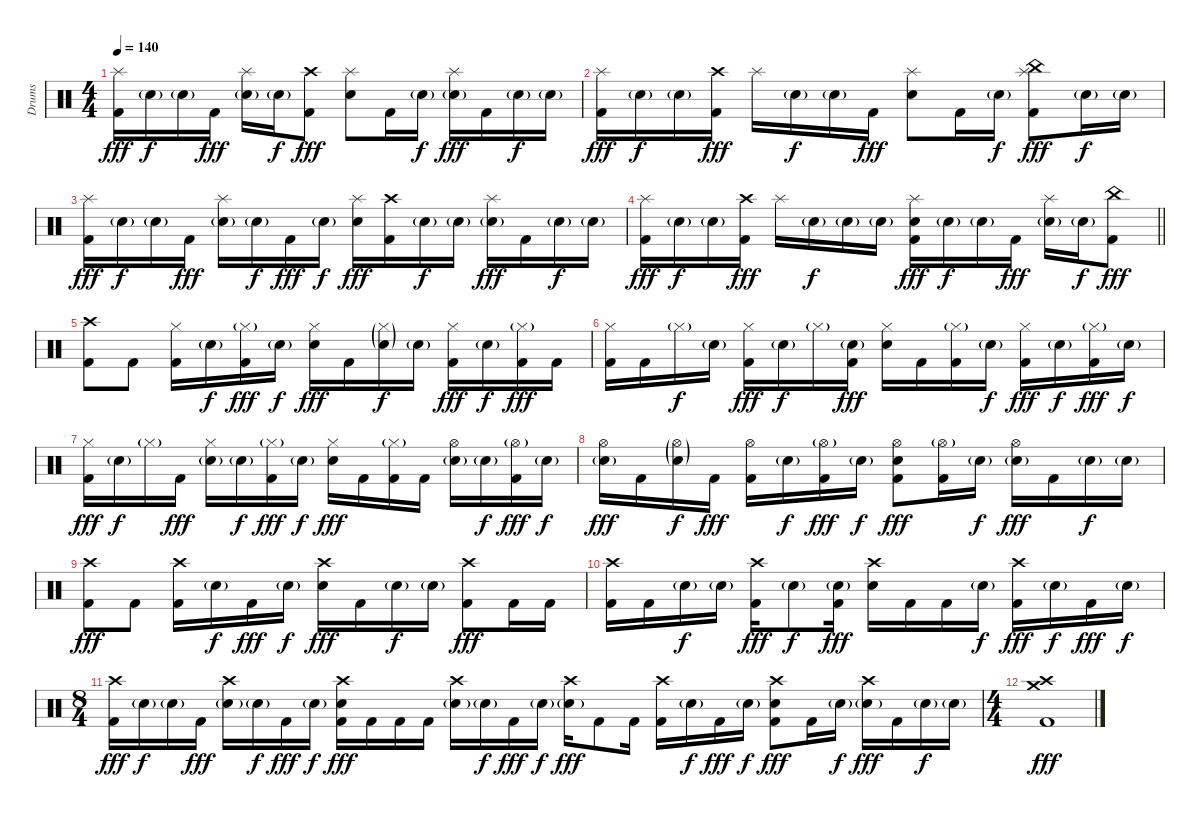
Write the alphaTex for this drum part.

\track ("Drums" "Drums") {instrument percussion}
\staff {score}
\articulation defaults
\ts (4 4)
\tempo 140
\clef neutral
\ks c
("Splash (hit)" "Kick (hit) 2").16{dy fff} "Electric Snare (hit)"{g}.16{dy f} "Electric Snare (hit)"{g}.16 "Kick (hit) 2".16{dy fff} ("Splash (hit)" "Electric Snare (hit)"{g}).16 "Electric Snare (hit)"{g}.16{dy f} ("Crash high (hit)" "Kick (hit) 2").8{dy fff} ("Splash (hit)" "Electric Snare (hit)").8 "Kick (hit) 2".16 "Electric Snare (hit)"{g}.16{dy f} ("Splash (hit)" "Electric Snare (hit)"{g}).16{dy fff} "Kick (hit) 2".16 "Electric Snare (hit)"{g}.16{dy f} "Electric Snare (hit)"{g}.16 |
("Splash (hit)" "Kick (hit) 2").16{dy fff} "Electric Snare (hit)"{g}.16{dy f} "Electric Snare (hit)"{g}.16 ("Crash high (hit)" "Kick (hit) 2").16{dy fff} "Splash (hit)".16 "Electric Snare (hit)"{g}.16{dy f} "Electric Snare (hit)"{g}.16 "Kick (hit) 2".16{dy fff} ("Splash (hit)" "Electric Snare (hit)").8 "Kick (hit) 2".16 "Electric Snare (hit)"{g}.16{dy f} ("Splash (hit)" "China (hit)" "Kick (hit) 2").8{dy fff} "Electric Snare (hit)"{g}.16{dy f} "Electric Snare (hit)"{g}.16 |
("Splash (hit)" "Kick (hit) 2").16{dy fff} "Electric Snare (hit)"{g}.16{dy f} "Electric Snare (hit)"{g}.16 "Kick (hit) 2".16{dy fff} ("Splash (hit)" "Electric Snare (hit)"{g}).16 "Electric Snare (hit)"{g}.16{dy f} "Kick (hit) 2".16{dy fff} "Electric Snare (hit)"{g}.16{dy f} ("Splash (hit)" "Electric Snare (hit)").16{dy fff} ("Crash high (hit)" "Kick (hit) 2").16 "Electric Snare (hit)"{g}.16{dy f} "Electric Snare (hit)"{g}.16 ("Splash (hit)" "Electric Snare (hit)"{g}).16{dy fff} "Kick (hit) 2".16 "Electric Snare (hit)"{g}.16{dy f} "Electric Snare (hit)"{g}.16 |
\barLineRight lightlight
("Splash (hit)" "Kick (hit) 2").16{dy fff} "Electric Snare (hit)"{g}.16{dy f} "Electric Snare (hit)"{g}.16 ("Crash high (hit)" "Kick (hit) 2").16{dy fff} "Splash (hit)".16 "Electric Snare (hit)"{g}.16{dy f} "Electric Snare (hit)"{g}.16 "Electric Snare (hit)"{g}.16 ("Splash (hit)" "Electric Snare (hit)" "Kick (hit) 2").16{dy fff} "Electric Snare (hit)"{g}.16{dy f} "Electric Snare (hit)"{g}.16 "Kick (hit) 2".16{dy fff} ("Splash (hit)" "Electric Snare (hit)"{g}).16 "Electric Snare (hit)"{g}.16{dy f} ("China (hit)" "Kick (hit) 2").8{dy fff} |
\section ("" ".")
("Crash high (hit)" "Kick (hit) 2").8 "Kick (hit) 2".8 ("Hi-Hat (closed)" "Kick (hit) 2").16 "Electric Snare (hit)"{g}.16{dy f} ("Hi-Hat (closed)"{g} "Kick (hit) 2").16{dy fff} "Electric Snare (hit)"{g}.16{dy f} ("Hi-Hat (closed)" "Electric Snare (hit)").16{dy fff} "Kick (hit) 2".16 ("Hi-Hat (closed)"{g} "Electric Snare (hit)"{g}).16{dy f} "Electric Snare (hit)"{g}.16 ("Hi-Hat (closed)" "Kick (hit) 2").16{dy fff} "Electric Snare (hit)"{g}.16{dy f} ("Hi-Hat (closed)"{g} "Kick (hit) 2").16{dy fff} "Kick (hit) 2".16 |
("Hi-Hat (closed)" "Kick (hit) 2").16 "Kick (hit) 2".16 "Hi-Hat (closed)"{g}.16{dy f} "Electric Snare (hit)"{g}.16 ("Hi-Hat (closed)" "Kick (hit) 2").16{dy fff} "Electric Snare (hit)"{g}.16{dy f} "Hi-Hat (closed)"{g}.16 ("Electric Snare (hit)"{g} "Kick (hit) 2").16{dy fff} ("Hi-Hat (closed)" "Electric Snare (hit)").16 "Kick (hit) 2".16 ("Hi-Hat (closed)"{g} "Kick (hit) 2").16 "Electric Snare (hit)"{g}.16{dy f} ("Hi-Hat (closed)" "Kick (hit) 2").16{dy fff} "Electric Snare (hit)"{g}.16{dy f} ("Hi-Hat (closed)"{g} "Kick (hit) 2").16{dy fff} "Electric Snare (hit)"{g}.16{dy f} |
("Hi-Hat (closed)" "Kick (hit) 2").16{dy fff} "Electric Snare (hit)"{g}.16{dy f} "Hi-Hat (closed)"{g}.16 "Kick (hit) 2".16{dy fff} ("Hi-Hat (closed)" "Electric Snare (hit)"{g}).16 "Electric Snare (hit)"{g}.16{dy f} ("Hi-Hat (closed)"{g} "Kick (hit) 2").16{dy fff} "Electric Snare (hit)"{g}.16{dy f} ("Hi-Hat (closed)" "Electric Snare (hit)").16{dy fff} "Kick (hit) 2".16 ("Hi-Hat (closed)"{g} "Kick (hit) 2").16 "Kick (hit) 2".16 ("Hi-Hat (open)" "Electric Snare (hit)"{g}).16 "Electric Snare (hit)"{g}.16{dy f} ("Hi-Hat (open)"{g} "Kick (hit) 2").16{dy fff} "Electric Snare (hit)"{g}.16{dy f} |
("Hi-Hat (open)" "Electric Snare (hit)"{g}).16{dy fff} "Kick (hit) 2".16 ("Hi-Hat (open)"{g} "Electric Snare (hit)"{g}).16{dy f} "Kick (hit) 2".16{dy fff} ("Hi-Hat (open)" "Kick (hit) 2").16 "Electric Snare (hit)"{g}.16{dy f} ("Hi-Hat (open)"{g} "Kick (hit) 2").16{dy fff} "Electric Snare (hit)"{g}.16{dy f} ("Hi-Hat (open)" "Electric Snare (hit)" "Kick (hit) 2").8{dy fff} ("Hi-Hat (open)"{g} "Kick (hit) 2").16 "Electric Snare (hit)"{g}.16{dy f} ("Hi-Hat (open)" "Electric Snare (hit)"{g}).16{dy fff} "Kick (hit) 2".16 "Electric Snare (hit)"{g}.16{dy f} "Electric Snare (hit)"{g}.16 |
("Crash high (hit)" "Kick (hit) 2").8{dy fff} "Kick (hit) 2".8 ("Crash high (hit)" "Kick (hit) 2").16 "Electric Snare (hit)"{g}.16{dy f} "Kick (hit) 2".16{dy fff} "Electric Snare (hit)"{g}.16{dy f} ("Crash high (hit)" "Electric Snare (hit)").16{dy fff} "Kick (hit) 2".16 "Electric Snare (hit)"{g}.16{dy f} "Electric Snare (hit)"{g}.16 ("Crash high (hit)" "Kick (hit) 2").8{dy fff} "Kick (hit) 2".16 "Kick (hit) 2".16 |
("Crash high (hit)" "Kick (hit) 2").16 "Kick (hit) 2".16 "Electric Snare (hit)"{g}.16{dy f} "Electric Snare (hit)"{g}.16 ("Crash high (hit)" "Kick (hit) 2").16{dy fff} "Electric Snare (hit)"{g}.8{dy f} ("Electric Snare (hit)"{g} "Kick (hit) 2").16{dy fff} ("Crash high (hit)" "Electric Snare (hit)").16 "Kick (hit) 2".16 "Kick (hit) 2".16 "Electric Snare (hit)"{g}.16{dy f} ("Crash high (hit)" "Kick (hit) 2").16{dy fff} "Electric Snare (hit)"{g}.16{dy f} "Kick (hit) 2".16{dy fff} "Electric Snare (hit)"{g}.16{dy f} |
\ts (8 4)
("Crash high (hit)" "Kick (hit) 2").16{dy fff} "Electric Snare (hit)"{g}.16{dy f} "Electric Snare (hit)"{g}.16 "Kick (hit) 2".16{dy fff} ("Crash high (hit)" "Electric Snare (hit)"{g}).16 "Electric Snare (hit)"{g}.16{dy f} "Kick (hit) 2".16{dy fff} "Electric Snare (hit)"{g}.16{dy f} ("Crash high (hit)" "Electric Snare (hit)" "Kick (hit) 2").16{dy fff} "Kick (hit) 2".16 "Kick (hit) 2".16 "Kick (hit) 2".16 ("Crash high (hit)" "Electric Snare (hit)"{g}).16 "Electric Snare (hit)"{g}.16{dy f} "Kick (hit) 2".16{dy fff} "Electric Snare (hit)"{g}.16{dy f} ("Crash high (hit)" "Electric Snare (hit)"{g}).16{dy fff} "Kick (hit) 2".8 "Kick (hit) 2".16 ("Crash high (hit)" "Kick (hit) 2").16 "Electric Snare (hit)"{g}.16{dy f} "Kick (hit) 2".16{dy fff} "Electric Snare (hit)"{g}.16{dy f} ("Crash high (hit)" "Electric Snare (hit)" "Kick (hit) 2").8{dy fff} "Kick (hit) 2".16 "Electric Snare (hit)"{g}.16{dy f} ("Crash high (hit)" "Electric Snare (hit)"{g}).16{dy fff} "Kick (hit) 2".16 "Electric Snare (hit)"{g}.16{dy f} "Electric Snare (hit)"{g}.16 |
\ts (4 4)
("Crash high (hit)" "Crash medium (hit)" "Kick (hit) 2").1{dy fff}
